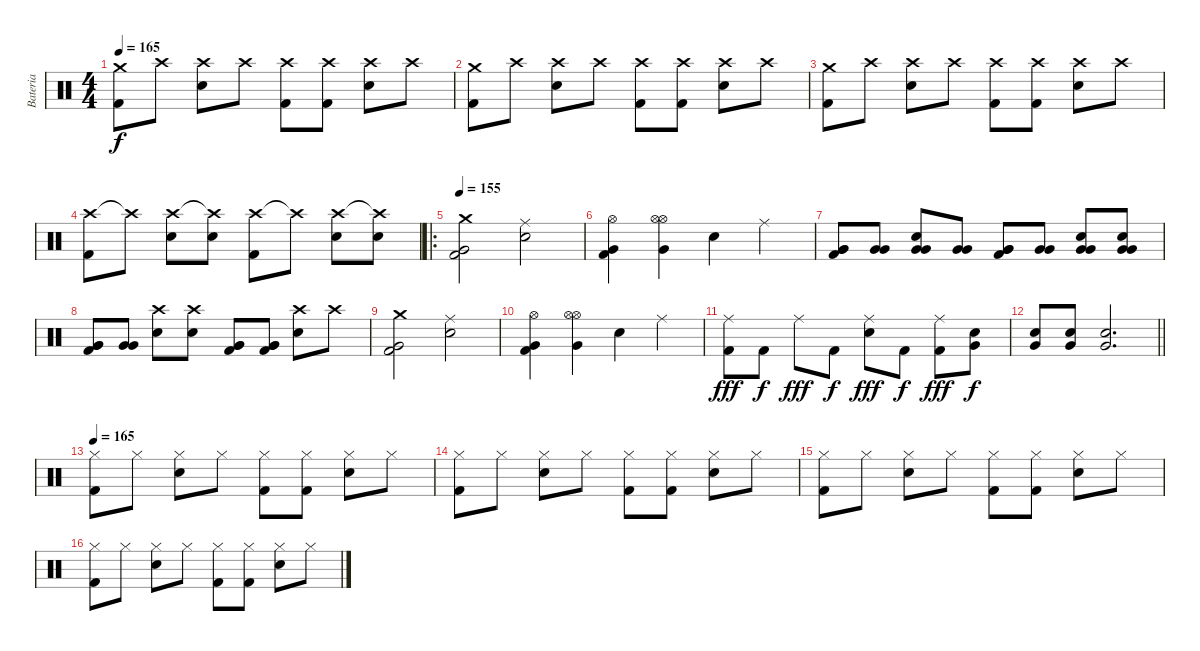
\track ("Bateria" "Bateria") {instrument percussion}
\staff {score}
\articulation defaults
\ts (4 4)
\tempo 165
\clef neutral
\ks c
("Crash medium (hit)" "Kick (hit) 2").8{dy f} "Crash high (hit)".8 ("Crash high (hit)" "Electric Snare (hit)").8 "Crash high (hit)".8 ("Crash high (hit)" "Kick (hit) 2").8 ("Crash high (hit)" "Kick (hit) 2").8 ("Crash high (hit)" "Electric Snare (hit)").8 "Crash high (hit)".8 |
("Crash medium (hit)" "Kick (hit) 2").8 "Crash high (hit)".8 ("Crash high (hit)" "Electric Snare (hit)").8 "Crash high (hit)".8 ("Crash high (hit)" "Kick (hit) 2").8 ("Crash high (hit)" "Kick (hit) 2").8 ("Crash high (hit)" "Electric Snare (hit)").8 "Crash high (hit)".8 |
("Crash medium (hit)" "Kick (hit) 2").8 "Crash high (hit)".8 ("Crash high (hit)" "Electric Snare (hit)").8 "Crash high (hit)".8 ("Crash high (hit)" "Kick (hit) 2").8 ("Crash high (hit)" "Kick (hit) 2").8 ("Crash high (hit)" "Electric Snare (hit)").8 "Crash high (hit)".8 |
("Crash high (hit)" "Kick (hit) 2").8 "Crash high (hit)"{t}.8 ("Crash high (hit)" "Electric Snare (hit)").8 ("Crash high (hit)"{t} "Electric Snare (hit)").8 ("Crash high (hit)" "Kick (hit) 2").8 "Crash high (hit)"{t}.8 ("Crash high (hit)" "Electric Snare (hit)").8 ("Crash high (hit)"{t} "Electric Snare (hit)").8 |
\ro
\tempo 155
("Crash medium (hit)" "Very Low Tom (hit)" "Kick (hit) 2").2 ("Ride (middle)" "Electric Snare (hit)").2 |
("Hi-Hat (open)" "Very Low Tom (hit)" "Kick (hit) 2").4 ("Hi-Hat (open)" "Very Low Tom (hit)" "Hi-Hat (open)").4 "Electric Snare (hit)".4 "Ride (middle)".4 |
("Very Low Tom (hit)" "Very Low Tom (hit)" "Kick (hit) 2").8 ("Very Low Tom (hit)" "Very Low Tom (hit)").8 ("Very Low Tom (hit)" "Very Low Tom (hit)" "Electric Snare (hit)").8 ("Very Low Tom (hit)" "Very Low Tom (hit)").8 ("Very Low Tom (hit)" "Very Low Tom (hit)" "Kick (hit) 2").8 ("Very Low Tom (hit)" "Very Low Tom (hit)").8 ("Very Low Tom (hit)" "Very Low Tom (hit)" "Electric Snare (hit)").8 ("Very Low Tom (hit)" "Very Low Tom (hit)" "Electric Snare (hit)").8 |
("Very Low Tom (hit)" "Very Low Tom (hit)" "Kick (hit) 2").8 ("Very Low Tom (hit)" "Very Low Tom (hit)").8 ("Crash high (hit)" "Electric Snare (hit)").8 ("Crash high (hit)" "Electric Snare (hit)").8 ("Very Low Tom (hit)" "Very Low Tom (hit)" "Kick (hit) 2").8 ("Very Low Tom (hit)" "Very Low Tom (hit)" "Kick (hit) 2").8 ("Crash high (hit)" "Electric Snare (hit)").8 "Crash high (hit)".8 |
("Crash medium (hit)" "Very Low Tom (hit)" "Kick (hit) 2").2 ("Ride (middle)" "Electric Snare (hit)").2 |
("Hi-Hat (open)" "Very Low Tom (hit)" "Kick (hit) 2").4 ("Hi-Hat (open)" "Very Low Tom (hit)" "Hi-Hat (open)").4 "Electric Snare (hit)".4 "Ride (middle)".4 |
("Ride (middle)" "Kick (hit) 2").8{dy fff} "Kick (hit) 2".8{dy f} "Ride (middle)".8{dy fff} "Kick (hit) 2".8{dy f} ("Ride (middle)" "Electric Snare (hit)").8{dy fff} "Kick (hit) 2".8{dy f} ("Ride (middle)" "Kick (hit) 2").8{dy fff} ("Very Low Tom (hit)" "Electric Snare (hit)").8{dy f} |
\barLineRight lightlight
("Very Low Tom (hit)" "Electric Snare (hit)").8 ("Very Low Tom (hit)" "Electric Snare (hit)").8 ("Very Low Tom (hit)" "Electric Snare (hit)").2{d} |
\tempo 165
("Hi-Hat (closed)" "Kick (hit) 2").8 "Hi-Hat (closed)".8 ("Hi-Hat (closed)" "Electric Snare (hit)").8 "Hi-Hat (closed)".8 ("Hi-Hat (closed)" "Kick (hit) 2").8 ("Hi-Hat (closed)" "Kick (hit) 2").8 ("Hi-Hat (closed)" "Electric Snare (hit)").8 "Hi-Hat (closed)".8 |
("Hi-Hat (closed)" "Kick (hit) 2").8 "Hi-Hat (closed)".8 ("Hi-Hat (closed)" "Electric Snare (hit)").8 "Hi-Hat (closed)".8 ("Hi-Hat (closed)" "Kick (hit) 2").8 ("Hi-Hat (closed)" "Kick (hit) 2").8 ("Hi-Hat (closed)" "Electric Snare (hit)").8 "Hi-Hat (closed)".8 |
("Hi-Hat (closed)" "Kick (hit) 2").8 "Hi-Hat (closed)".8 ("Hi-Hat (closed)" "Electric Snare (hit)").8 "Hi-Hat (closed)".8 ("Hi-Hat (closed)" "Kick (hit) 2").8 ("Hi-Hat (closed)" "Kick (hit) 2").8 ("Hi-Hat (closed)" "Electric Snare (hit)").8 "Hi-Hat (closed)".8 |
("Hi-Hat (closed)" "Kick (hit) 2").8 "Hi-Hat (closed)".8 ("Hi-Hat (closed)" "Electric Snare (hit)").8 "Hi-Hat (closed)".8 ("Hi-Hat (closed)" "Kick (hit) 2").8 ("Hi-Hat (closed)" "Kick (hit) 2").8 ("Hi-Hat (closed)" "Electric Snare (hit)").8 "Hi-Hat (closed)".8
